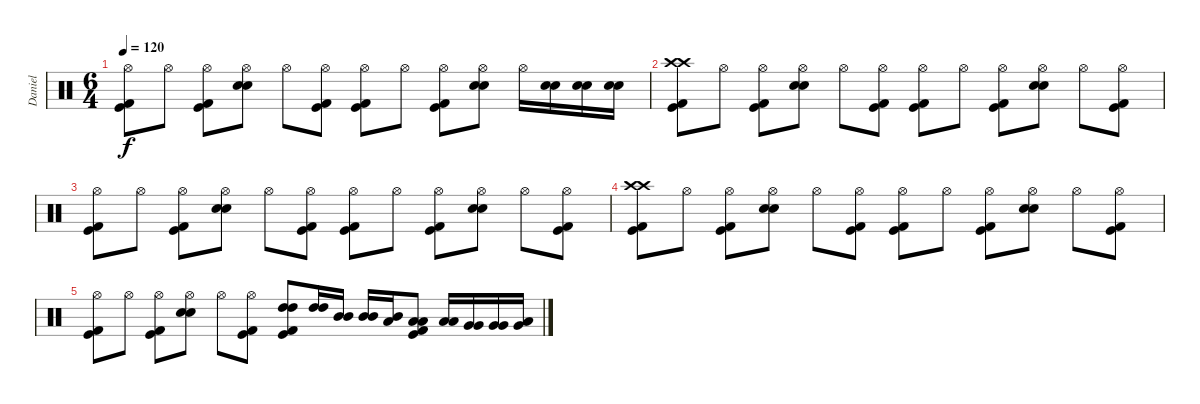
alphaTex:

\track ("Daniel" "Daniel") {instrument percussion}
\staff {score}
\articulation defaults
\ts (6 4)
\tempo 120
\clef neutral
\ks c
("Hi-Hat (open)" "Kick (hit) 2" "Kick (hit)").8{dy f} "Hi-Hat (open)".8 ("Hi-Hat (open)" "Kick (hit) 2" "Kick (hit)").8 ("Hi-Hat (open)" "Snare (hit) 2" "Electric Snare (hit)").8 "Hi-Hat (open)".8 ("Hi-Hat (open)" "Kick (hit) 2" "Kick (hit)").8 ("Hi-Hat (open)" "Kick (hit) 2" "Kick (hit)").8 "Hi-Hat (open)".8 ("Hi-Hat (open)" "Kick (hit) 2" "Kick (hit)").8 ("Hi-Hat (open)" "Snare (hit) 2" "Electric Snare (hit)").8 "Hi-Hat (open)".16 ("Snare (hit) 2" "Electric Snare (hit)").16 ("Snare (hit) 2" "Electric Snare (hit)").16 ("Snare (hit) 2" "Electric Snare (hit)").16 |
("Crash high (hit)" "Crash high (hit)" "Kick (hit) 2" "Kick (hit)").8 "Hi-Hat (open)".8 ("Hi-Hat (open)" "Kick (hit) 2" "Kick (hit)").8 ("Hi-Hat (open)" "Snare (hit) 2" "Electric Snare (hit)").8 "Hi-Hat (open)".8 ("Hi-Hat (open)" "Kick (hit) 2" "Kick (hit)").8 ("Hi-Hat (open)" "Kick (hit) 2" "Kick (hit)").8 "Hi-Hat (open)".8 ("Hi-Hat (open)" "Kick (hit) 2" "Kick (hit)").8 ("Hi-Hat (open)" "Snare (hit) 2" "Electric Snare (hit)").8 "Hi-Hat (open)".8 ("Hi-Hat (open)" "Kick (hit) 2" "Kick (hit)").8 |
("Hi-Hat (open)" "Kick (hit) 2" "Kick (hit)").8 "Hi-Hat (open)".8 ("Hi-Hat (open)" "Kick (hit) 2" "Kick (hit)").8 ("Hi-Hat (open)" "Snare (hit) 2" "Electric Snare (hit)").8 "Hi-Hat (open)".8 ("Hi-Hat (open)" "Kick (hit) 2" "Kick (hit)").8 ("Hi-Hat (open)" "Kick (hit) 2" "Kick (hit)").8 "Hi-Hat (open)".8 ("Hi-Hat (open)" "Kick (hit) 2" "Kick (hit)").8 ("Hi-Hat (open)" "Snare (hit) 2" "Electric Snare (hit)").8 "Hi-Hat (open)".8 ("Hi-Hat (open)" "Kick (hit) 2" "Kick (hit)").8 |
("Crash high (hit)" "Crash high (hit)" "Kick (hit) 2" "Kick (hit)").8 "Hi-Hat (open)".8 ("Hi-Hat (open)" "Kick (hit) 2" "Kick (hit)").8 ("Hi-Hat (open)" "Snare (hit) 2" "Electric Snare (hit)").8 "Hi-Hat (open)".8 ("Hi-Hat (open)" "Kick (hit) 2" "Kick (hit)").8 ("Hi-Hat (open)" "Kick (hit) 2" "Kick (hit)").8 "Hi-Hat (open)".8 ("Hi-Hat (open)" "Kick (hit) 2" "Kick (hit)").8 ("Hi-Hat (open)" "Snare (hit) 2" "Electric Snare (hit)").8 "Hi-Hat (open)".8 ("Hi-Hat (open)" "Kick (hit) 2" "Kick (hit)").8 |
("Hi-Hat (open)" "Kick (hit) 2" "Kick (hit)").8 "Hi-Hat (open)".8 ("Hi-Hat (open)" "Kick (hit) 2" "Kick (hit)").8 ("Hi-Hat (open)" "Snare (hit) 2" "Electric Snare (hit)").8 "Hi-Hat (open)".8 ("Hi-Hat (open)" "Kick (hit) 2" "Kick (hit)").8 ("High Tom (hit)" "High Tom (hit)" "Kick (hit) 2" "Kick (hit)").8 ("High Tom (hit)" "High Tom (hit)").16 ("Mid Tom (hit)" "Mid Tom (hit)").16 ("Mid Tom (hit)" "Mid Tom (hit)").16 ("Mid Tom (hit)" "Low Tom (hit)").16 ("Low Tom (hit)" "Low Tom (hit)" "Kick (hit) 2" "Kick (hit)").8 ("Low Tom (hit)" "Low Tom (hit)").16 ("Very Low Tom (hit)" "Very Low Tom (hit)").16 ("Very Low Tom (hit)" "Very Low Tom (hit)").16 ("Very Low Tom (hit)" "Low Floor Tom (hit)").16
